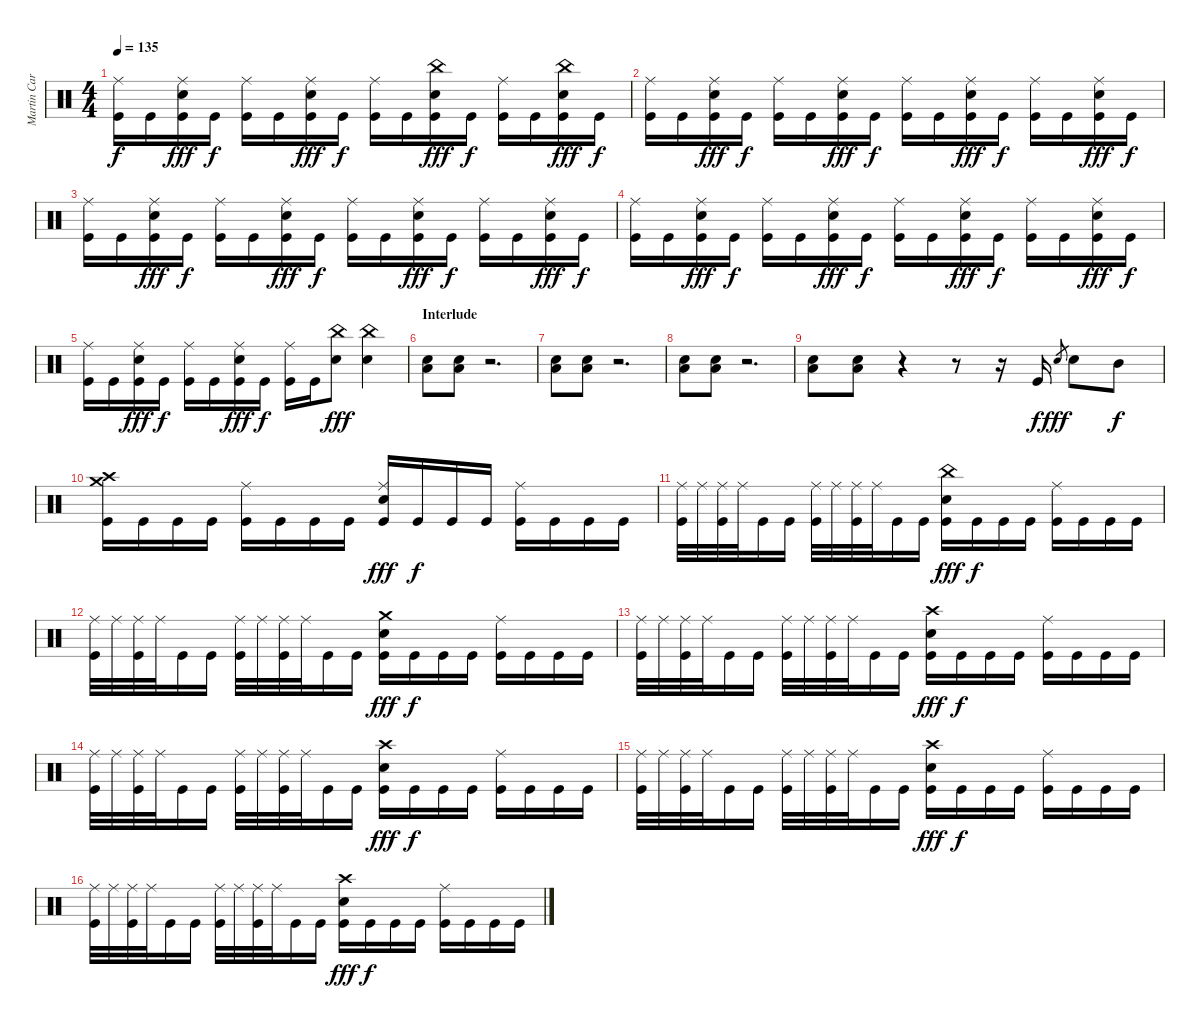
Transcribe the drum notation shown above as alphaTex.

\track ("Martin Carrizo" "Martin Car") {instrument percussion}
\staff {score}
\articulation defaults
\ts (4 4)
\tempo 135
\clef neutral
\ks c
("Kick (hit)" "Ride (middle)").16{dy f} "Kick (hit)".16 ("Kick (hit)" "Snare (hit) 2" "Ride (middle)").16{dy fff} "Kick (hit)".16{dy f} ("Kick (hit)" "Ride (middle)").16 "Kick (hit)".16 ("Kick (hit)" "Snare (hit) 2" "Ride (middle)").16{dy fff} "Kick (hit)".16{dy f} ("Kick (hit)" "Ride (middle)").16 "Kick (hit)".16 ("Kick (hit)" "Snare (hit) 2" "China (hit)").16{dy fff} "Kick (hit)".16{dy f} ("Kick (hit)" "Ride (middle)").16 "Kick (hit)".16 ("Kick (hit)" "Snare (hit) 2" "China (hit)").16{dy fff} "Kick (hit)".16{dy f} |
("Kick (hit)" "Ride (middle)").16 "Kick (hit)".16 ("Kick (hit)" "Snare (hit) 2" "Ride (middle)").16{dy fff} "Kick (hit)".16{dy f} ("Kick (hit)" "Ride (middle)").16 "Kick (hit)".16 ("Kick (hit)" "Snare (hit) 2" "Ride (middle)").16{dy fff} "Kick (hit)".16{dy f} ("Kick (hit)" "Ride (middle)").16 "Kick (hit)".16 ("Kick (hit)" "Snare (hit) 2" "Ride (middle)").16{dy fff} "Kick (hit)".16{dy f} ("Kick (hit)" "Ride (middle)").16 "Kick (hit)".16 ("Kick (hit)" "Snare (hit) 2" "Ride (middle)").16{dy fff} "Kick (hit)".16{dy f} |
("Kick (hit)" "Ride (middle)").16 "Kick (hit)".16 ("Kick (hit)" "Snare (hit) 2" "Ride (middle)").16{dy fff} "Kick (hit)".16{dy f} ("Kick (hit)" "Ride (middle)").16 "Kick (hit)".16 ("Kick (hit)" "Snare (hit) 2" "Ride (middle)").16{dy fff} "Kick (hit)".16{dy f} ("Kick (hit)" "Ride (middle)").16 "Kick (hit)".16 ("Kick (hit)" "Snare (hit) 2" "Ride (middle)").16{dy fff} "Kick (hit)".16{dy f} ("Kick (hit)" "Ride (middle)").16 "Kick (hit)".16 ("Kick (hit)" "Snare (hit) 2" "Ride (middle)").16{dy fff} "Kick (hit)".16{dy f} |
("Kick (hit)" "Ride (middle)").16 "Kick (hit)".16 ("Kick (hit)" "Snare (hit) 2" "Ride (middle)").16{dy fff} "Kick (hit)".16{dy f} ("Kick (hit)" "Ride (middle)").16 "Kick (hit)".16 ("Kick (hit)" "Snare (hit) 2" "Ride (middle)").16{dy fff} "Kick (hit)".16{dy f} ("Kick (hit)" "Ride (middle)").16 "Kick (hit)".16 ("Kick (hit)" "Snare (hit) 2" "Ride (middle)").16{dy fff} "Kick (hit)".16{dy f} ("Kick (hit)" "Ride (middle)").16 "Kick (hit)".16 ("Kick (hit)" "Snare (hit) 2" "Ride (middle)").16{dy fff} "Kick (hit)".16{dy f} |
("Kick (hit)" "Ride (middle)").16 "Kick (hit)".16 ("Kick (hit)" "Snare (hit) 2" "Ride (middle)").16{dy fff} "Kick (hit)".16{dy f} ("Kick (hit)" "Ride (middle)").16 "Kick (hit)".16 ("Kick (hit)" "Snare (hit) 2" "Ride (middle)").16{dy fff} "Kick (hit)".16{dy f} ("Kick (hit)" "Ride (middle)").16 "Kick (hit)".16 ("Snare (hit) 2" "China (hit)").8{dy fff} ("Snare (hit) 2" "China (hit)").4 |
\section ("" "Interlude")
("Snare (hit) 2" "Low Floor Tom (hit)").8 ("Snare (hit) 2" "Low Floor Tom (hit)").8 r.2{d} |
("Snare (hit) 2" "Low Floor Tom (hit)").8 ("Snare (hit) 2" "Low Floor Tom (hit)").8 r.2{d} |
("Snare (hit) 2" "Low Floor Tom (hit)").8 ("Snare (hit) 2" "Low Floor Tom (hit)").8 r.2{d} |
("Snare (hit) 2" "Low Floor Tom (hit)").8 ("Snare (hit) 2" "Low Floor Tom (hit)").8 r.4 r.8 r.16 "Kick (hit)".16{dy f} "Snare (hit) 2".8{gr dy fff} "Snare (hit) 2".8 "Mid Tom (hit)".8{dy f} |
("Kick (hit)" "Crash high (hit)" "Crash medium (hit)").16 "Kick (hit)".16 "Kick (hit)".16 "Kick (hit)".16 ("Kick (hit)" "Ride (middle)").16 "Kick (hit)".16 "Kick (hit)".16 "Kick (hit)".16 ("Kick (hit)" "Snare (hit) 2" "Ride (middle)").16{dy fff} "Kick (hit)".16{dy f} "Kick (hit)".16 "Kick (hit)".16 ("Kick (hit)" "Ride (middle)").16 "Kick (hit)".16 "Kick (hit)".16 "Kick (hit)".16 |
("Kick (hit)" "Ride (middle)").32 "Ride (middle)".32 ("Kick (hit)" "Ride (middle)").32 "Ride (middle)".32 "Kick (hit)".16 "Kick (hit)".16 ("Kick (hit)" "Ride (middle)").32 "Ride (middle)".32 ("Kick (hit)" "Ride (middle)").32 "Ride (middle)".32 "Kick (hit)".16 "Kick (hit)".16 ("Kick (hit)" "Snare (hit) 2" "China (hit)").16{dy fff} "Kick (hit)".16{dy f} "Kick (hit)".16 "Kick (hit)".16 ("Kick (hit)" "Ride (middle)").16 "Kick (hit)".16 "Kick (hit)".16 "Kick (hit)".16 |
("Kick (hit)" "Ride (middle)").32 "Ride (middle)".32 ("Kick (hit)" "Ride (middle)").32 "Ride (middle)".32 "Kick (hit)".16 "Kick (hit)".16 ("Kick (hit)" "Ride (middle)").32 "Ride (middle)".32 ("Kick (hit)" "Ride (middle)").32 "Ride (middle)".32 "Kick (hit)".16 "Kick (hit)".16 ("Kick (hit)" "Snare (hit) 2" "Crash medium (hit)").16{dy fff} "Kick (hit)".16{dy f} "Kick (hit)".16 "Kick (hit)".16 ("Kick (hit)" "Ride (middle)").16 "Kick (hit)".16 "Kick (hit)".16 "Kick (hit)".16 |
("Kick (hit)" "Ride (middle)").32 "Ride (middle)".32 ("Kick (hit)" "Ride (middle)").32 "Ride (middle)".32 "Kick (hit)".16 "Kick (hit)".16 ("Kick (hit)" "Ride (middle)").32 "Ride (middle)".32 ("Kick (hit)" "Ride (middle)").32 "Ride (middle)".32 "Kick (hit)".16 "Kick (hit)".16 ("Kick (hit)" "Snare (hit) 2" "Crash high (hit)").16{dy fff} "Kick (hit)".16{dy f} "Kick (hit)".16 "Kick (hit)".16 ("Kick (hit)" "Ride (middle)").16 "Kick (hit)".16 "Kick (hit)".16 "Kick (hit)".16 |
("Kick (hit)" "Ride (middle)").32 "Ride (middle)".32 ("Kick (hit)" "Ride (middle)").32 "Ride (middle)".32 "Kick (hit)".16 "Kick (hit)".16 ("Kick (hit)" "Ride (middle)").32 "Ride (middle)".32 ("Kick (hit)" "Ride (middle)").32 "Ride (middle)".32 "Kick (hit)".16 "Kick (hit)".16 ("Kick (hit)" "Snare (hit) 2" "Crash high (hit)").16{dy fff} "Kick (hit)".16{dy f} "Kick (hit)".16 "Kick (hit)".16 ("Kick (hit)" "Ride (middle)").16 "Kick (hit)".16 "Kick (hit)".16 "Kick (hit)".16 |
("Kick (hit)" "Ride (middle)").32 "Ride (middle)".32 ("Kick (hit)" "Ride (middle)").32 "Ride (middle)".32 "Kick (hit)".16 "Kick (hit)".16 ("Kick (hit)" "Ride (middle)").32 "Ride (middle)".32 ("Kick (hit)" "Ride (middle)").32 "Ride (middle)".32 "Kick (hit)".16 "Kick (hit)".16 ("Kick (hit)" "Snare (hit) 2" "Crash high (hit)").16{dy fff} "Kick (hit)".16{dy f} "Kick (hit)".16 "Kick (hit)".16 ("Kick (hit)" "Ride (middle)").16 "Kick (hit)".16 "Kick (hit)".16 "Kick (hit)".16 |
("Kick (hit)" "Ride (middle)").32 "Ride (middle)".32 ("Kick (hit)" "Ride (middle)").32 "Ride (middle)".32 "Kick (hit)".16 "Kick (hit)".16 ("Kick (hit)" "Ride (middle)").32 "Ride (middle)".32 ("Kick (hit)" "Ride (middle)").32 "Ride (middle)".32 "Kick (hit)".16 "Kick (hit)".16 ("Kick (hit)" "Snare (hit) 2" "Crash high (hit)").16{dy fff} "Kick (hit)".16{dy f} "Kick (hit)".16 "Kick (hit)".16 ("Kick (hit)" "Ride (middle)").16 "Kick (hit)".16 "Kick (hit)".16 "Kick (hit)".16
